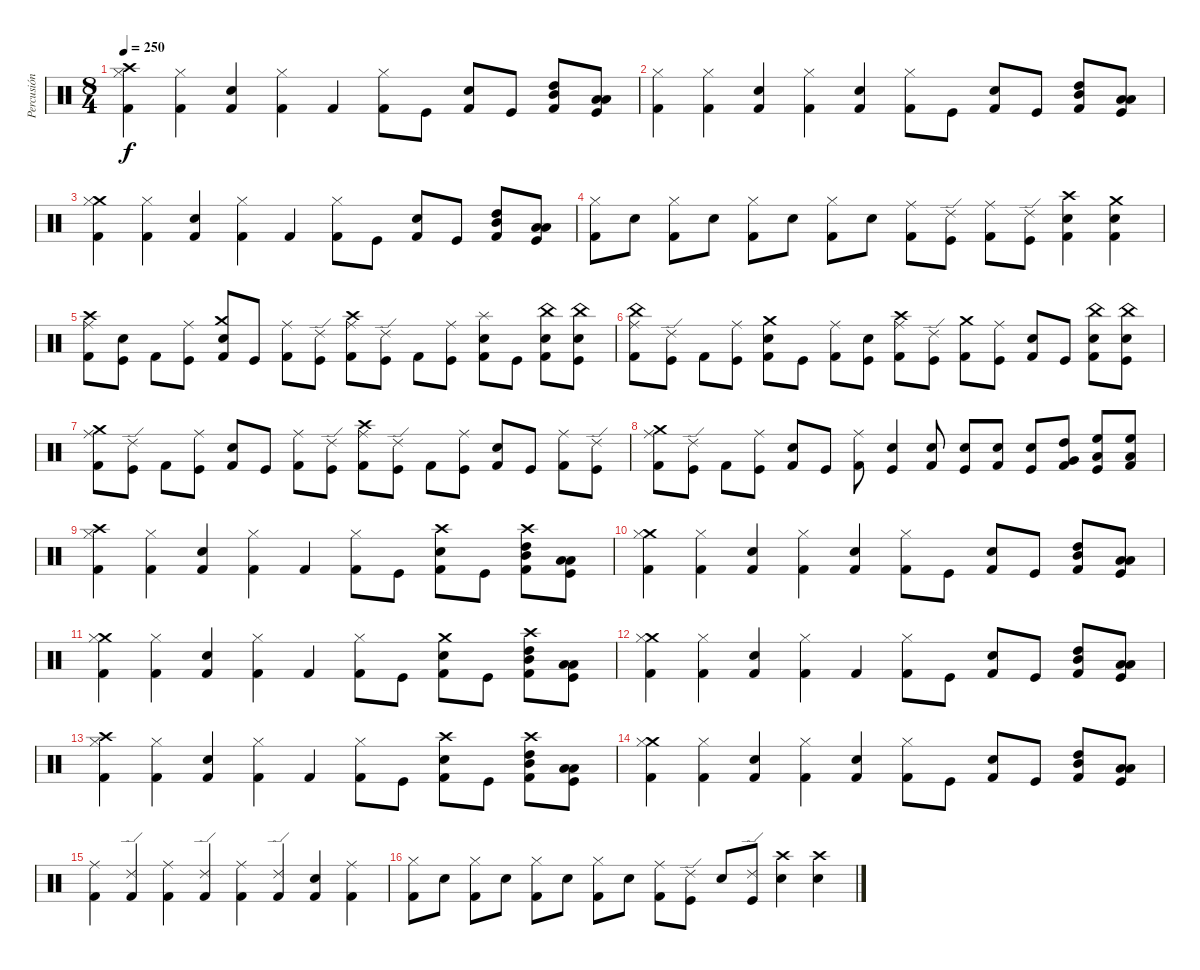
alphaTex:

\track ("Percusión" "Percusión") {instrument percussion}
\staff {score}
\articulation defaults
\ts (8 4)
\tempo 250
\clef neutral
\ks c
("Crash high (hit)" "Hi-Hat (closed)" "Kick (hit) 2").4{dy f} ("Hi-Hat (closed)" "Kick (hit) 2").4 ("Electric Snare (hit)" "Kick (hit) 2").4 ("Hi-Hat (closed)" "Kick (hit) 2").4 "Kick (hit) 2".4 ("Hi-Hat (closed)" "Kick (hit) 2").8 "Kick (hit)".8 ("Electric Snare (hit)" "Kick (hit) 2").8 "Kick (hit)".8 ("Mid Tom (hit)" "High Tom (hit)" "Kick (hit) 2").8 ("Low Tom (hit)" "Low Tom (hit)" "Kick (hit)").8 |
("Hi-Hat (closed)" "Kick (hit) 2").4 ("Hi-Hat (closed)" "Kick (hit) 2").4 ("Electric Snare (hit)" "Kick (hit) 2").4 ("Hi-Hat (closed)" "Kick (hit) 2").4 ("Electric Snare (hit)" "Kick (hit) 2").4 ("Hi-Hat (closed)" "Kick (hit) 2").8 "Kick (hit)".8 ("Electric Snare (hit)" "Kick (hit) 2").8 "Kick (hit)".8 ("Mid Tom (hit)" "High Tom (hit)" "Kick (hit) 2").8 ("Low Tom (hit)" "Low Tom (hit)" "Kick (hit)").8 |
("Crash medium (hit)" "Hi-Hat (closed)" "Kick (hit) 2").4 ("Hi-Hat (closed)" "Kick (hit) 2").4 ("Electric Snare (hit)" "Kick (hit) 2").4 ("Hi-Hat (closed)" "Kick (hit) 2").4 "Kick (hit) 2".4 ("Hi-Hat (closed)" "Kick (hit) 2").8 "Kick (hit)".8 ("Electric Snare (hit)" "Kick (hit) 2").8 "Kick (hit)".8 ("Mid Tom (hit)" "High Tom (hit)" "Kick (hit) 2").8 ("Low Tom (hit)" "Low Tom (hit)" "Kick (hit)").8 |
("Hi-Hat (closed)" "Kick (hit) 2").8 "Electric Snare (hit)".8 ("Hi-Hat (closed)" "Kick (hit) 2").8 "Electric Snare (hit)".8 ("Hi-Hat (closed)" "Kick (hit) 2").8 "Electric Snare (hit)".8 ("Hi-Hat (closed)" "Kick (hit) 2").8 "Electric Snare (hit)".8 ("Ride (middle)" "Kick (hit) 2").8 ("Ride (edge) 2" "Kick (hit)").8 ("Ride (middle)" "Kick (hit) 2").8 ("Ride (edge) 2" "Kick (hit)").8 ("Crash high (hit)" "Electric Snare (hit)" "Kick (hit) 2").4 ("Crash medium (hit)" "Electric Snare (hit)" "Kick (hit) 2").4 |
("Crash high (hit)" "Ride (middle)" "Kick (hit) 2").8 ("Electric Snare (hit)" "Kick (hit)").8 "Kick (hit) 2".8 ("Ride (middle)" "Kick (hit)").8 ("Crash medium (hit)" "Snare (hit) 2" "Kick (hit) 2").8 "Kick (hit)".8 ("Ride (middle)" "Kick (hit) 2").8 ("Ride (edge) 2" "Kick (hit)").8 ("Crash high (hit)" "Ride (middle)" "Kick (hit) 2").8 ("Ride (edge) 2" "Kick (hit)").8 "Kick (hit) 2".8 ("Ride (middle)" "Kick (hit)").8 ("Splash (hit)" "Electric Snare (hit)" "Kick (hit) 2").8 "Kick (hit)".8 ("China (hit)" "Electric Snare (hit)" "Kick (hit) 2").8 ("China (hit)" "Electric Snare (hit)" "Kick (hit)").8 |
("China (hit)" "Ride (middle)" "Kick (hit) 2").8 ("Ride (edge) 2" "Kick (hit)").8 "Kick (hit) 2".8 ("Ride (middle)" "Kick (hit)").8 ("Crash medium (hit)" "Electric Snare (hit)" "Kick (hit) 2").8 "Kick (hit)".8 ("Ride (middle)" "Kick (hit) 2").8 ("Electric Snare (hit)" "Kick (hit)").8 ("Crash high (hit)" "Ride (middle)" "Kick (hit) 2").8 ("Ride (edge) 2" "Kick (hit)").8 ("Crash medium (hit)" "Kick (hit) 2").8 ("Ride (middle)" "Kick (hit)").8 ("Electric Snare (hit)" "Kick (hit) 2").8 "Kick (hit)".8 ("China (hit)" "Electric Snare (hit)" "Kick (hit) 2").8 ("China (hit)" "Electric Snare (hit)" "Kick (hit)").8 |
("Crash medium (hit)" "Ride (middle)" "Kick (hit) 2").8 ("Ride (edge) 2" "Kick (hit)").8 "Kick (hit) 2".8 ("Ride (middle)" "Kick (hit)").8 ("Electric Snare (hit)" "Kick (hit) 2").8 "Kick (hit)".8 ("Ride (middle)" "Kick (hit) 2").8 ("Ride (edge) 2" "Kick (hit)").8 ("Crash high (hit)" "Ride (middle)" "Kick (hit) 2").8 ("Ride (edge) 2" "Kick (hit)").8 "Kick (hit) 2".8 ("Ride (middle)" "Kick (hit)").8 ("Electric Snare (hit)" "Kick (hit) 2").8 "Kick (hit)".8 ("Ride (middle)" "Kick (hit) 2").8 ("Ride (edge) 2" "Kick (hit)").8 |
("Crash medium (hit)" "Ride (middle)" "Kick (hit) 2").8 ("Ride (edge) 2" "Kick (hit)").8 "Kick (hit) 2".8 ("Ride (middle)" "Kick (hit)").8 ("Electric Snare (hit)" "Kick (hit) 2").8 "Kick (hit)".8 ("Ride (middle)" "Kick (hit) 2").8 ("Electric Snare (hit)" "Kick (hit)").4 ("Electric Snare (hit)" "Kick (hit) 2").8 ("Electric Snare (hit)" "Kick (hit)").8 ("Electric Snare (hit)" "Kick (hit) 2").8 ("Electric Snare (hit)" "Kick (hit)").8 ("High Tom (hit)" "Very Low Tom (hit)" "Kick (hit) 2").8 ("High Floor Tom (hit)" "Low Floor Tom (hit)" "Kick (hit)").8 ("Low Floor Tom (hit)" "High Floor Tom (hit)" "Kick (hit) 2").8 |
("Crash high (hit)" "Hi-Hat (closed)" "Kick (hit) 2").4 ("Hi-Hat (closed)" "Kick (hit) 2").4 ("Electric Snare (hit)" "Kick (hit) 2").4 ("Hi-Hat (closed)" "Kick (hit) 2").4 "Kick (hit) 2".4 ("Hi-Hat (closed)" "Kick (hit) 2").8 "Kick (hit)".8 ("Crash high (hit)" "Electric Snare (hit)" "Kick (hit) 2").8 "Kick (hit)".8 ("Crash high (hit)" "Mid Tom (hit)" "High Tom (hit)" "Kick (hit) 2").8 ("Low Tom (hit)" "Low Tom (hit)" "Kick (hit)").8 |
("Crash medium (hit)" "Hi-Hat (closed)" "Kick (hit) 2").4 ("Hi-Hat (closed)" "Kick (hit) 2").4 ("Electric Snare (hit)" "Kick (hit) 2").4 ("Hi-Hat (closed)" "Kick (hit) 2").4 ("Electric Snare (hit)" "Kick (hit) 2").4 ("Hi-Hat (closed)" "Kick (hit) 2").8 "Kick (hit)".8 ("Electric Snare (hit)" "Kick (hit) 2").8 "Kick (hit)".8 ("Mid Tom (hit)" "High Tom (hit)" "Kick (hit) 2").8 ("Low Tom (hit)" "Low Tom (hit)" "Kick (hit)").8 |
("Crash medium (hit)" "Hi-Hat (closed)" "Kick (hit) 2").4 ("Hi-Hat (closed)" "Kick (hit) 2").4 ("Electric Snare (hit)" "Kick (hit) 2").4 ("Hi-Hat (closed)" "Kick (hit) 2").4 "Kick (hit) 2".4 ("Hi-Hat (closed)" "Kick (hit) 2").8 "Kick (hit)".8 ("Crash medium (hit)" "Electric Snare (hit)" "Kick (hit) 2").8 "Kick (hit)".8 ("Crash high (hit)" "Mid Tom (hit)" "High Tom (hit)" "Kick (hit) 2").8 ("Low Tom (hit)" "Low Tom (hit)" "Kick (hit)").8 |
("Crash medium (hit)" "Hi-Hat (closed)" "Kick (hit) 2").4 ("Hi-Hat (closed)" "Kick (hit) 2").4 ("Electric Snare (hit)" "Kick (hit) 2").4 ("Hi-Hat (closed)" "Kick (hit) 2").4 "Kick (hit) 2".4 ("Hi-Hat (closed)" "Kick (hit) 2").8 "Kick (hit)".8 ("Electric Snare (hit)" "Kick (hit) 2").8 "Kick (hit)".8 ("Mid Tom (hit)" "High Tom (hit)" "Kick (hit) 2").8 ("Low Tom (hit)" "Low Tom (hit)" "Kick (hit)").8 |
("Crash high (hit)" "Hi-Hat (closed)" "Kick (hit) 2").4 ("Hi-Hat (closed)" "Kick (hit) 2").4 ("Electric Snare (hit)" "Kick (hit) 2").4 ("Hi-Hat (closed)" "Kick (hit) 2").4 "Kick (hit) 2".4 ("Hi-Hat (closed)" "Kick (hit) 2").8 "Kick (hit)".8 ("Crash high (hit)" "Electric Snare (hit)" "Kick (hit) 2").8 "Kick (hit)".8 ("Crash high (hit)" "Mid Tom (hit)" "High Tom (hit)" "Kick (hit) 2").8 ("Low Tom (hit)" "Low Tom (hit)" "Kick (hit)").8 |
("Crash medium (hit)" "Hi-Hat (closed)" "Kick (hit) 2").4 ("Hi-Hat (closed)" "Kick (hit) 2").4 ("Electric Snare (hit)" "Kick (hit) 2").4 ("Hi-Hat (closed)" "Kick (hit) 2").4 ("Electric Snare (hit)" "Kick (hit) 2").4 ("Hi-Hat (closed)" "Kick (hit) 2").8 "Kick (hit)".8 ("Electric Snare (hit)" "Kick (hit) 2").8 "Kick (hit)".8 ("Mid Tom (hit)" "High Tom (hit)" "Kick (hit) 2").8 ("Low Tom (hit)" "Low Tom (hit)" "Kick (hit)").8 |
("Ride (middle)" "Kick (hit) 2").4 ("Ride (edge) 2" "Kick (hit) 2").4 ("Ride (middle)" "Kick (hit) 2").4 ("Ride (edge) 2" "Kick (hit) 2").4 ("Ride (middle)" "Kick (hit) 2").4 ("Ride (edge) 2" "Kick (hit) 2").4 ("Electric Snare (hit)" "Kick (hit) 2").4 ("Ride (middle)" "Kick (hit) 2").4 |
("Hi-Hat (closed)" "Kick (hit) 2").8 "Electric Snare (hit)".8 ("Hi-Hat (closed)" "Kick (hit) 2").8 "Electric Snare (hit)".8 ("Hi-Hat (closed)" "Kick (hit) 2").8 "Electric Snare (hit)".8 ("Hi-Hat (closed)" "Kick (hit) 2").8 "Electric Snare (hit)".8 ("Ride (middle)" "Kick (hit) 2").8 ("Ride (edge) 2" "Kick (hit)").8 "Electric Snare (hit)".8 ("Ride (edge) 2" "Kick (hit)").8 ("Crash high (hit)" "Electric Snare (hit)").4 ("Crash high (hit)" "Electric Snare (hit)").4
